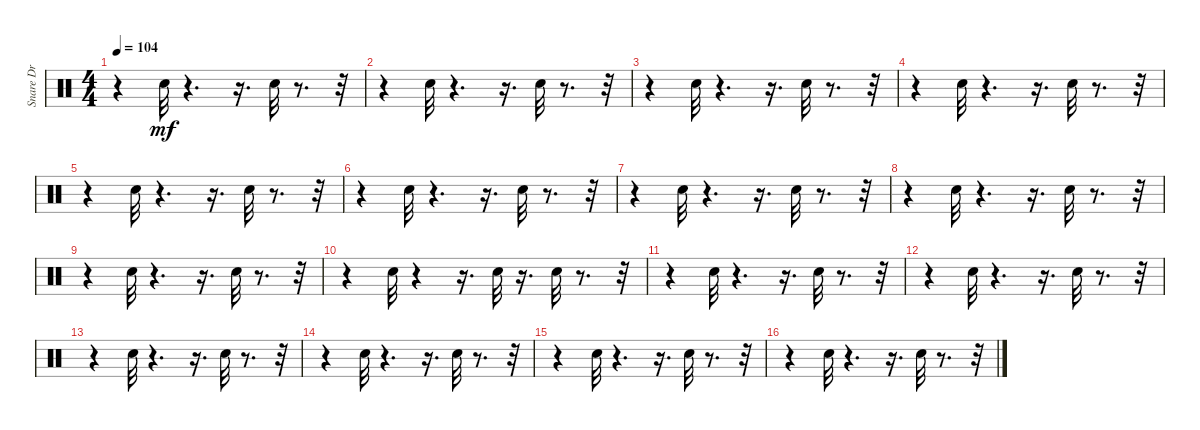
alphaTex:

\track ("  Snare Drum 1" "  Snare Dr") {instrument percussion}
\staff {score}
\articulation defaults
\ts (4 4)
\tempo 104
\clef neutral
\ks c
r.4{dy mf} "Snare (hit) 2".32 r.4{d} r.16{d} "Snare (hit) 2".32 r.8{d} r.32 |
r.4 "Snare (hit) 2".32 r.4{d} r.16{d} "Snare (hit) 2".32 r.8{d} r.32 |
r.4 "Snare (hit) 2".32 r.4{d} r.16{d} "Snare (hit) 2".32 r.8{d} r.32 |
r.4 "Snare (hit) 2".32 r.4{d} r.16{d} "Snare (hit) 2".32 r.8{d} r.32 |
r.4 "Snare (hit) 2".32 r.4{d} r.16{d} "Snare (hit) 2".32 r.8{d} r.32 |
r.4 "Snare (hit) 2".32 r.4{d} r.16{d} "Snare (hit) 2".32 r.8{d} r.32 |
r.4 "Snare (hit) 2".32 r.4{d} r.16{d} "Snare (hit) 2".32 r.8{d} r.32 |
r.4 "Snare (hit) 2".32 r.4{d} r.16{d} "Snare (hit) 2".32 r.8{d} r.32 |
r.4 "Snare (hit) 2".32 r.4{d} r.16{d} "Snare (hit) 2".32 r.8{d} r.32 |
r.4 "Snare (hit) 2".32 r.4 r.16{d} "Snare (hit) 2".32 r.16{d} "Snare (hit) 2".32 r.8{d} r.32 |
r.4 "Snare (hit) 2".32 r.4{d} r.16{d} "Snare (hit) 2".32 r.8{d} r.32 |
r.4 "Snare (hit) 2".32 r.4{d} r.16{d} "Snare (hit) 2".32 r.8{d} r.32 |
r.4 "Snare (hit) 2".32 r.4{d} r.16{d} "Snare (hit) 2".32 r.8{d} r.32 |
r.4 "Snare (hit) 2".32 r.4{d} r.16{d} "Snare (hit) 2".32 r.8{d} r.32 |
r.4 "Snare (hit) 2".32 r.4{d} r.16{d} "Snare (hit) 2".32 r.8{d} r.32 |
r.4 "Snare (hit) 2".32 r.4{d} r.16{d} "Snare (hit) 2".32 r.8{d} r.32
